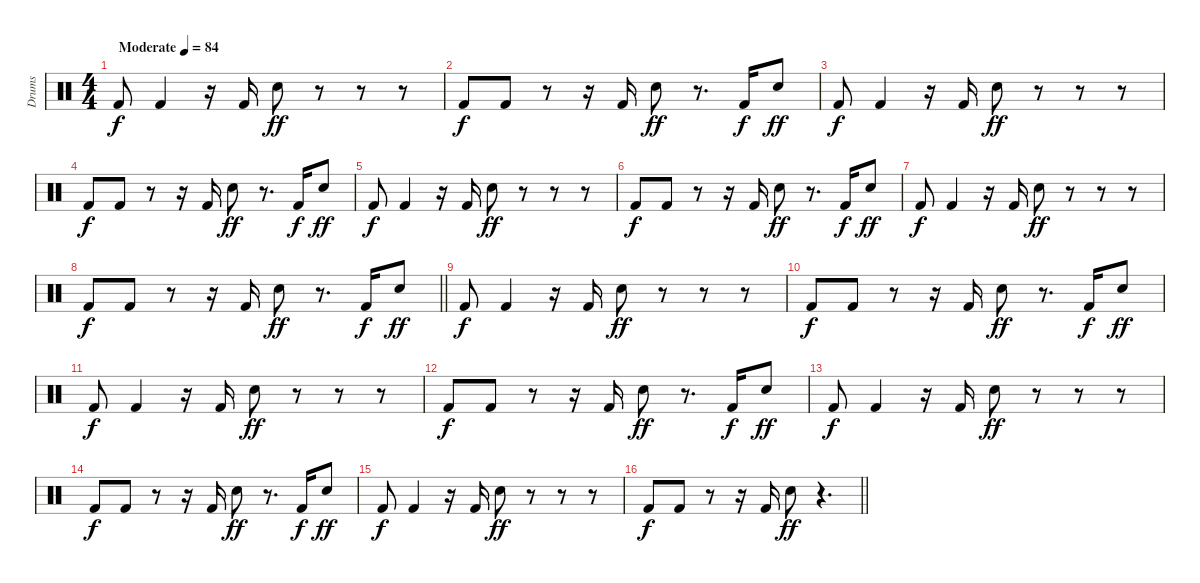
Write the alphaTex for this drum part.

\track ("Drums" "Drums") {instrument percussion}
\staff {score}
\articulation defaults
\ts (4 4)
\tempo (84 "Moderate")
\clef neutral
\ks c "Kick (hit) 2".8{dy f volume 14} "Kick (hit) 2".4
r.16 "Kick (hit) 2".16 "Electric Snare (hit)".8{dy ff} r.8 r.8 r.8 |
"Kick (hit) 2".8{dy f} "Kick (hit) 2".8 r.8 r.16 "Kick (hit) 2".16 "Electric Snare (hit)".8{dy ff} r.8{d} "Kick (hit) 2".16{dy f} "Electric Snare (hit)".8{dy ff} |
"Kick (hit) 2".8{dy f} "Kick (hit) 2".4 r.16 "Kick (hit) 2".16 "Electric Snare (hit)".8{dy ff} r.8 r.8 r.8 |
"Kick (hit) 2".8{dy f} "Kick (hit) 2".8 r.8 r.16 "Kick (hit) 2".16 "Electric Snare (hit)".8{dy ff} r.8{d} "Kick (hit) 2".16{dy f} "Electric Snare (hit)".8{dy ff} |
"Kick (hit) 2".8{dy f} "Kick (hit) 2".4 r.16 "Kick (hit) 2".16 "Electric Snare (hit)".8{dy ff} r.8 r.8 r.8 |
"Kick (hit) 2".8{dy f} "Kick (hit) 2".8 r.8 r.16 "Kick (hit) 2".16 "Electric Snare (hit)".8{dy ff} r.8{d} "Kick (hit) 2".16{dy f} "Electric Snare (hit)".8{dy ff} |
"Kick (hit) 2".8{dy f} "Kick (hit) 2".4 r.16 "Kick (hit) 2".16 "Electric Snare (hit)".8{dy ff} r.8 r.8 r.8 |
\barLineRight lightlight "Kick (hit) 2".8{dy f} "Kick (hit) 2".8
r.8 r.16 "Kick (hit) 2".16 "Electric Snare (hit)".8{dy ff} r.8{d} "Kick (hit) 2".16{dy f} "Electric Snare (hit)".8{dy ff} |
"Kick (hit) 2".8{dy f} "Kick (hit) 2".4 r.16 "Kick (hit) 2".16 "Electric Snare (hit)".8{dy ff} r.8 r.8 r.8 |
"Kick (hit) 2".8{dy f} "Kick (hit) 2".8 r.8 r.16 "Kick (hit) 2".16 "Electric Snare (hit)".8{dy ff} r.8{d} "Kick (hit) 2".16{dy f} "Electric Snare (hit)".8{dy ff} |
"Kick (hit) 2".8{dy f} "Kick (hit) 2".4 r.16 "Kick (hit) 2".16 "Electric Snare (hit)".8{dy ff} r.8 r.8 r.8 |
"Kick (hit) 2".8{dy f} "Kick (hit) 2".8 r.8 r.16 "Kick (hit) 2".16 "Electric Snare (hit)".8{dy ff} r.8{d} "Kick (hit) 2".16{dy f} "Electric Snare (hit)".8{dy ff} |
"Kick (hit) 2".8{dy f} "Kick (hit) 2".4 r.16 "Kick (hit) 2".16 "Electric Snare (hit)".8{dy ff} r.8 r.8 r.8 |
"Kick (hit) 2".8{dy f} "Kick (hit) 2".8 r.8 r.16 "Kick (hit) 2".16 "Electric Snare (hit)".8{dy ff} r.8{d} "Kick (hit) 2".16{dy f} "Electric Snare (hit)".8{dy ff} |
"Kick (hit) 2".8{dy f} "Kick (hit) 2".4 r.16 "Kick (hit) 2".16 "Electric Snare (hit)".8{dy ff} r.8 r.8 r.8 |
\barLineRight lightlight "Kick (hit) 2".8{dy f} "Kick (hit) 2".8
r.8 r.16 "Kick (hit) 2".16 "Electric Snare (hit)".8{dy ff} r.4{d}
